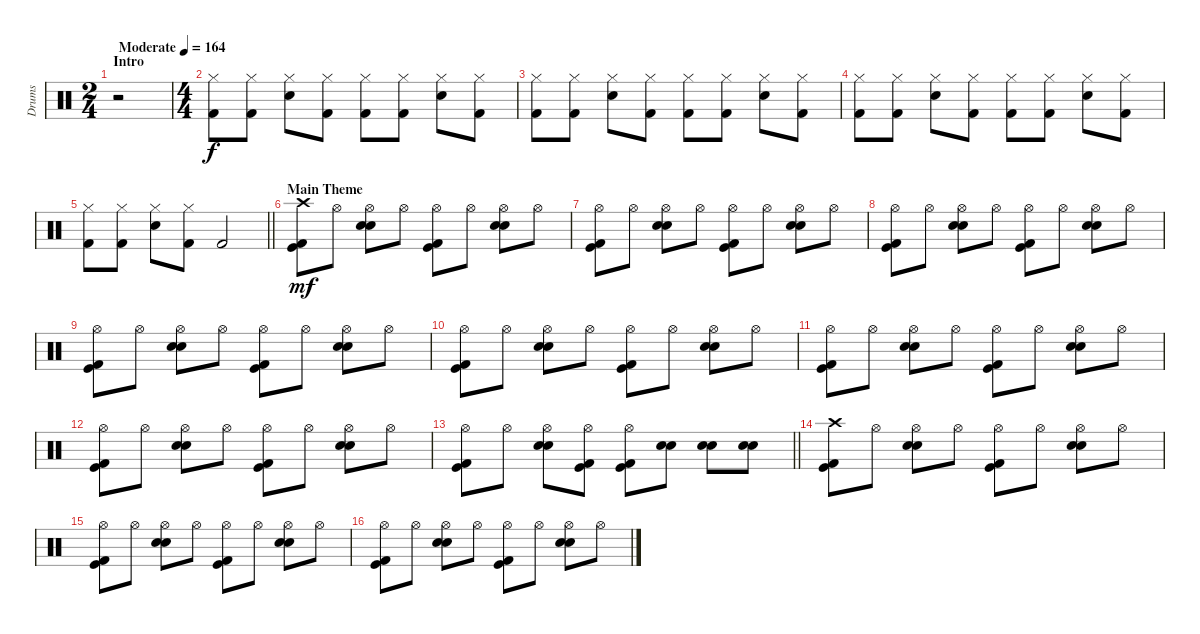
\track ("Drums" "Drums") {instrument percussion}
\staff {score}
\articulation defaults
\ts (2 4)
\section ("" "Intro")
\tempo (164 "Moderate")
\clef neutral
\ks c
r.2{dy f} |
\ts (4 4)
("Hi-Hat (closed)" "Kick (hit) 2").8 ("Hi-Hat (closed)" "Kick (hit) 2").8 ("Hi-Hat (closed)" "Snare (hit) 2").8 ("Hi-Hat (closed)" "Kick (hit) 2").8 ("Hi-Hat (closed)" "Kick (hit) 2").8 ("Hi-Hat (closed)" "Kick (hit) 2").8 ("Hi-Hat (closed)" "Snare (hit) 2").8 ("Hi-Hat (closed)" "Kick (hit) 2").8 |
("Hi-Hat (closed)" "Kick (hit) 2").8 ("Hi-Hat (closed)" "Kick (hit) 2").8 ("Hi-Hat (closed)" "Snare (hit) 2").8 ("Hi-Hat (closed)" "Kick (hit) 2").8 ("Hi-Hat (closed)" "Kick (hit) 2").8 ("Hi-Hat (closed)" "Kick (hit) 2").8 ("Hi-Hat (closed)" "Snare (hit) 2").8 ("Hi-Hat (closed)" "Kick (hit) 2").8 |
("Hi-Hat (closed)" "Kick (hit) 2").8 ("Hi-Hat (closed)" "Kick (hit) 2").8 ("Hi-Hat (closed)" "Snare (hit) 2").8 ("Hi-Hat (closed)" "Kick (hit) 2").8 ("Hi-Hat (closed)" "Kick (hit) 2").8 ("Hi-Hat (closed)" "Kick (hit) 2").8 ("Hi-Hat (closed)" "Snare (hit) 2").8 ("Hi-Hat (closed)" "Kick (hit) 2").8 |
\barLineRight lightlight
("Hi-Hat (closed)" "Kick (hit) 2").8 ("Hi-Hat (closed)" "Kick (hit) 2").8 ("Hi-Hat (closed)" "Snare (hit) 2").8 ("Hi-Hat (closed)" "Kick (hit) 2").8 "Kick (hit) 2".2 |
\section ("" "Main Theme")
("Crash high (hit)" "Kick (hit) 2" "Kick (hit)").8{dy mf} "Hi-Hat (open)".8 ("Hi-Hat (open)" "Snare (hit) 2" "Electric Snare (hit)").8 "Hi-Hat (open)".8 ("Hi-Hat (open)" "Kick (hit) 2" "Kick (hit)").8 "Hi-Hat (open)".8 ("Hi-Hat (open)" "Snare (hit) 2" "Electric Snare (hit)").8 "Hi-Hat (open)".8 |
("Hi-Hat (open)" "Kick (hit) 2" "Kick (hit)").8 "Hi-Hat (open)".8 ("Hi-Hat (open)" "Snare (hit) 2" "Electric Snare (hit)").8 "Hi-Hat (open)".8 ("Hi-Hat (open)" "Kick (hit) 2" "Kick (hit)").8 "Hi-Hat (open)".8 ("Hi-Hat (open)" "Snare (hit) 2" "Electric Snare (hit)").8 "Hi-Hat (open)".8 |
("Hi-Hat (open)" "Kick (hit) 2" "Kick (hit)").8 "Hi-Hat (open)".8 ("Hi-Hat (open)" "Snare (hit) 2" "Electric Snare (hit)").8 "Hi-Hat (open)".8 ("Hi-Hat (open)" "Kick (hit) 2" "Kick (hit)").8 "Hi-Hat (open)".8 ("Hi-Hat (open)" "Snare (hit) 2" "Electric Snare (hit)").8 "Hi-Hat (open)".8 |
("Hi-Hat (open)" "Kick (hit) 2" "Kick (hit)").8 "Hi-Hat (open)".8 ("Hi-Hat (open)" "Snare (hit) 2" "Electric Snare (hit)").8 "Hi-Hat (open)".8 ("Hi-Hat (open)" "Kick (hit) 2" "Kick (hit)").8 "Hi-Hat (open)".8 ("Hi-Hat (open)" "Snare (hit) 2" "Electric Snare (hit)").8 "Hi-Hat (open)".8 |
("Hi-Hat (open)" "Kick (hit) 2" "Kick (hit)").8 "Hi-Hat (open)".8 ("Hi-Hat (open)" "Snare (hit) 2" "Electric Snare (hit)").8 "Hi-Hat (open)".8 ("Hi-Hat (open)" "Kick (hit) 2" "Kick (hit)").8 "Hi-Hat (open)".8 ("Hi-Hat (open)" "Snare (hit) 2" "Electric Snare (hit)").8 "Hi-Hat (open)".8 |
("Hi-Hat (open)" "Kick (hit) 2" "Kick (hit)").8 "Hi-Hat (open)".8 ("Hi-Hat (open)" "Snare (hit) 2" "Electric Snare (hit)").8 "Hi-Hat (open)".8 ("Hi-Hat (open)" "Kick (hit) 2" "Kick (hit)").8 "Hi-Hat (open)".8 ("Hi-Hat (open)" "Snare (hit) 2" "Electric Snare (hit)").8 "Hi-Hat (open)".8 |
("Hi-Hat (open)" "Kick (hit) 2" "Kick (hit)").8 "Hi-Hat (open)".8 ("Hi-Hat (open)" "Snare (hit) 2" "Electric Snare (hit)").8 "Hi-Hat (open)".8 ("Hi-Hat (open)" "Kick (hit) 2" "Kick (hit)").8 "Hi-Hat (open)".8 ("Hi-Hat (open)" "Snare (hit) 2" "Electric Snare (hit)").8 "Hi-Hat (open)".8 |
\barLineRight lightlight
("Hi-Hat (open)" "Kick (hit) 2" "Kick (hit)").8 "Hi-Hat (open)".8 ("Hi-Hat (open)" "Snare (hit) 2" "Electric Snare (hit)").8 ("Hi-Hat (open)" "Kick (hit) 2" "Kick (hit)").8 ("Hi-Hat (open)" "Kick (hit) 2" "Kick (hit)").8 ("Snare (hit) 2" "Electric Snare (hit)").8 ("Snare (hit) 2" "Electric Snare (hit)").8 ("Snare (hit) 2" "Electric Snare (hit)").8 |
("Crash high (hit)" "Kick (hit) 2" "Kick (hit)").8 "Hi-Hat (open)".8 ("Hi-Hat (open)" "Snare (hit) 2" "Electric Snare (hit)").8 "Hi-Hat (open)".8 ("Hi-Hat (open)" "Kick (hit) 2" "Kick (hit)").8 "Hi-Hat (open)".8 ("Hi-Hat (open)" "Snare (hit) 2" "Electric Snare (hit)").8 "Hi-Hat (open)".8 |
("Hi-Hat (open)" "Kick (hit) 2" "Kick (hit)").8 "Hi-Hat (open)".8 ("Hi-Hat (open)" "Snare (hit) 2" "Electric Snare (hit)").8 "Hi-Hat (open)".8 ("Hi-Hat (open)" "Kick (hit) 2" "Kick (hit)").8 "Hi-Hat (open)".8 ("Hi-Hat (open)" "Snare (hit) 2" "Electric Snare (hit)").8 "Hi-Hat (open)".8 |
("Hi-Hat (open)" "Kick (hit) 2" "Kick (hit)").8 "Hi-Hat (open)".8 ("Hi-Hat (open)" "Snare (hit) 2" "Electric Snare (hit)").8 "Hi-Hat (open)".8 ("Hi-Hat (open)" "Kick (hit) 2" "Kick (hit)").8 "Hi-Hat (open)".8 ("Hi-Hat (open)" "Snare (hit) 2" "Electric Snare (hit)").8 "Hi-Hat (open)".8
